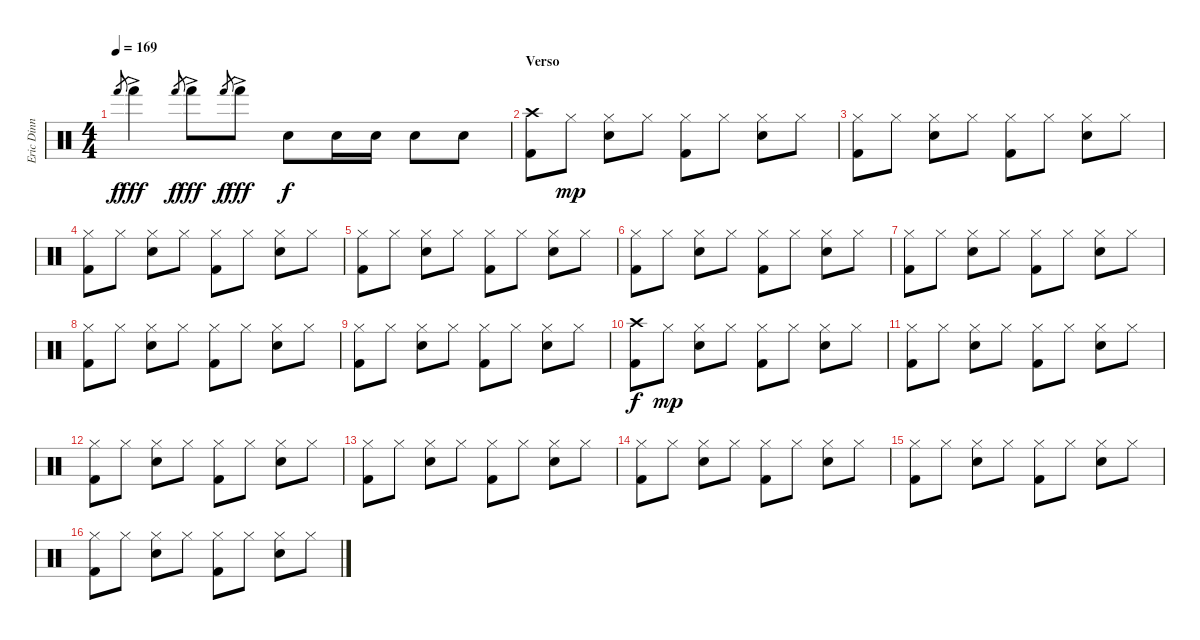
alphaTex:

\track ("Eric Dinn" "Eric Dinn") {instrument percussion}
\staff {score}
\articulation defaults
\ts (4 4)
\tempo 169
\clef neutral
\ks c "Hand (hit)".8{gr dy f} "Hand (hit)"{ac}.4{dy fff} "Hand (hit)".8{gr dy f} "Hand (hit)"{ac}.8{dy fff} "Hand (hit)".8{gr dy f} "Hand (hit)"{ac}.8{dy fff} "Snare (hit) 2".8{dy f} "Snare (hit) 2".16 "Snare (hit) 2".16 "Snare (hit) 2".8 "Snare (hit) 2".8
|
\section ("" "Verso")
("Crash high (hit)" "Kick (hit) 2").8 "Hi-Hat (closed)".8{dy mp} ("Hi-Hat (closed)" "Snare (hit) 2").8 "Hi-Hat (closed)".8 ("Hi-Hat (closed)" "Kick (hit) 2").8 "Hi-Hat (closed)".8 ("Hi-Hat (closed)" "Snare (hit) 2").8 "Hi-Hat (closed)".8 |
("Hi-Hat (closed)" "Kick (hit) 2").8 "Hi-Hat (closed)".8 ("Hi-Hat (closed)" "Snare (hit) 2").8 "Hi-Hat (closed)".8 ("Hi-Hat (closed)" "Kick (hit) 2").8 "Hi-Hat (closed)".8 ("Hi-Hat (closed)" "Snare (hit) 2").8 "Hi-Hat (closed)".8 |
("Hi-Hat (closed)" "Kick (hit) 2").8 "Hi-Hat (closed)".8 ("Hi-Hat (closed)" "Snare (hit) 2").8 "Hi-Hat (closed)".8 ("Hi-Hat (closed)" "Kick (hit) 2").8 "Hi-Hat (closed)".8 ("Hi-Hat (closed)" "Snare (hit) 2").8 "Hi-Hat (closed)".8 |
("Hi-Hat (closed)" "Kick (hit) 2").8 "Hi-Hat (closed)".8 ("Hi-Hat (closed)" "Snare (hit) 2").8 "Hi-Hat (closed)".8 ("Hi-Hat (closed)" "Kick (hit) 2").8 "Hi-Hat (closed)".8 ("Hi-Hat (closed)" "Snare (hit) 2").8 "Hi-Hat (closed)".8 |
("Hi-Hat (closed)" "Kick (hit) 2").8 "Hi-Hat (closed)".8 ("Hi-Hat (closed)" "Snare (hit) 2").8 "Hi-Hat (closed)".8 ("Hi-Hat (closed)" "Kick (hit) 2").8 "Hi-Hat (closed)".8 ("Hi-Hat (closed)" "Snare (hit) 2").8 "Hi-Hat (closed)".8 |
("Hi-Hat (closed)" "Kick (hit) 2").8 "Hi-Hat (closed)".8 ("Hi-Hat (closed)" "Snare (hit) 2").8 "Hi-Hat (closed)".8 ("Hi-Hat (closed)" "Kick (hit) 2").8 "Hi-Hat (closed)".8 ("Hi-Hat (closed)" "Snare (hit) 2").8 "Hi-Hat (closed)".8 |
("Hi-Hat (closed)" "Kick (hit) 2").8 "Hi-Hat (closed)".8 ("Hi-Hat (closed)" "Snare (hit) 2").8 "Hi-Hat (closed)".8 ("Hi-Hat (closed)" "Kick (hit) 2").8 "Hi-Hat (closed)".8 ("Hi-Hat (closed)" "Snare (hit) 2").8 "Hi-Hat (closed)".8 |
("Hi-Hat (closed)" "Kick (hit) 2").8 "Hi-Hat (closed)".8 ("Hi-Hat (closed)" "Snare (hit) 2").8 "Hi-Hat (closed)".8 ("Hi-Hat (closed)" "Kick (hit) 2").8 "Hi-Hat (closed)".8 ("Hi-Hat (closed)" "Snare (hit) 2").8 "Hi-Hat (closed)".8 |
("Crash high (hit)" "Kick (hit) 2").8{dy f} "Hi-Hat (closed)".8{dy mp} ("Hi-Hat (closed)" "Snare (hit) 2").8 "Hi-Hat (closed)".8 ("Hi-Hat (closed)" "Kick (hit) 2").8 "Hi-Hat (closed)".8 ("Hi-Hat (closed)" "Snare (hit) 2").8 "Hi-Hat (closed)".8 |
("Hi-Hat (closed)" "Kick (hit) 2").8 "Hi-Hat (closed)".8 ("Hi-Hat (closed)" "Snare (hit) 2").8 "Hi-Hat (closed)".8 ("Hi-Hat (closed)" "Kick (hit) 2").8 "Hi-Hat (closed)".8 ("Hi-Hat (closed)" "Snare (hit) 2").8 "Hi-Hat (closed)".8 |
("Hi-Hat (closed)" "Kick (hit) 2").8 "Hi-Hat (closed)".8 ("Hi-Hat (closed)" "Snare (hit) 2").8 "Hi-Hat (closed)".8 ("Hi-Hat (closed)" "Kick (hit) 2").8 "Hi-Hat (closed)".8 ("Hi-Hat (closed)" "Snare (hit) 2").8 "Hi-Hat (closed)".8 |
("Hi-Hat (closed)" "Kick (hit) 2").8 "Hi-Hat (closed)".8 ("Hi-Hat (closed)" "Snare (hit) 2").8 "Hi-Hat (closed)".8 ("Hi-Hat (closed)" "Kick (hit) 2").8 "Hi-Hat (closed)".8 ("Hi-Hat (closed)" "Snare (hit) 2").8 "Hi-Hat (closed)".8 |
("Hi-Hat (closed)" "Kick (hit) 2").8 "Hi-Hat (closed)".8 ("Hi-Hat (closed)" "Snare (hit) 2").8 "Hi-Hat (closed)".8 ("Hi-Hat (closed)" "Kick (hit) 2").8 "Hi-Hat (closed)".8 ("Hi-Hat (closed)" "Snare (hit) 2").8 "Hi-Hat (closed)".8 |
("Hi-Hat (closed)" "Kick (hit) 2").8 "Hi-Hat (closed)".8 ("Hi-Hat (closed)" "Snare (hit) 2").8 "Hi-Hat (closed)".8 ("Hi-Hat (closed)" "Kick (hit) 2").8 "Hi-Hat (closed)".8 ("Hi-Hat (closed)" "Snare (hit) 2").8 "Hi-Hat (closed)".8 |
("Hi-Hat (closed)" "Kick (hit) 2").8 "Hi-Hat (closed)".8 ("Hi-Hat (closed)" "Snare (hit) 2").8 "Hi-Hat (closed)".8 ("Hi-Hat (closed)" "Kick (hit) 2").8 "Hi-Hat (closed)".8 ("Hi-Hat (closed)" "Snare (hit) 2").8 "Hi-Hat (closed)".8
